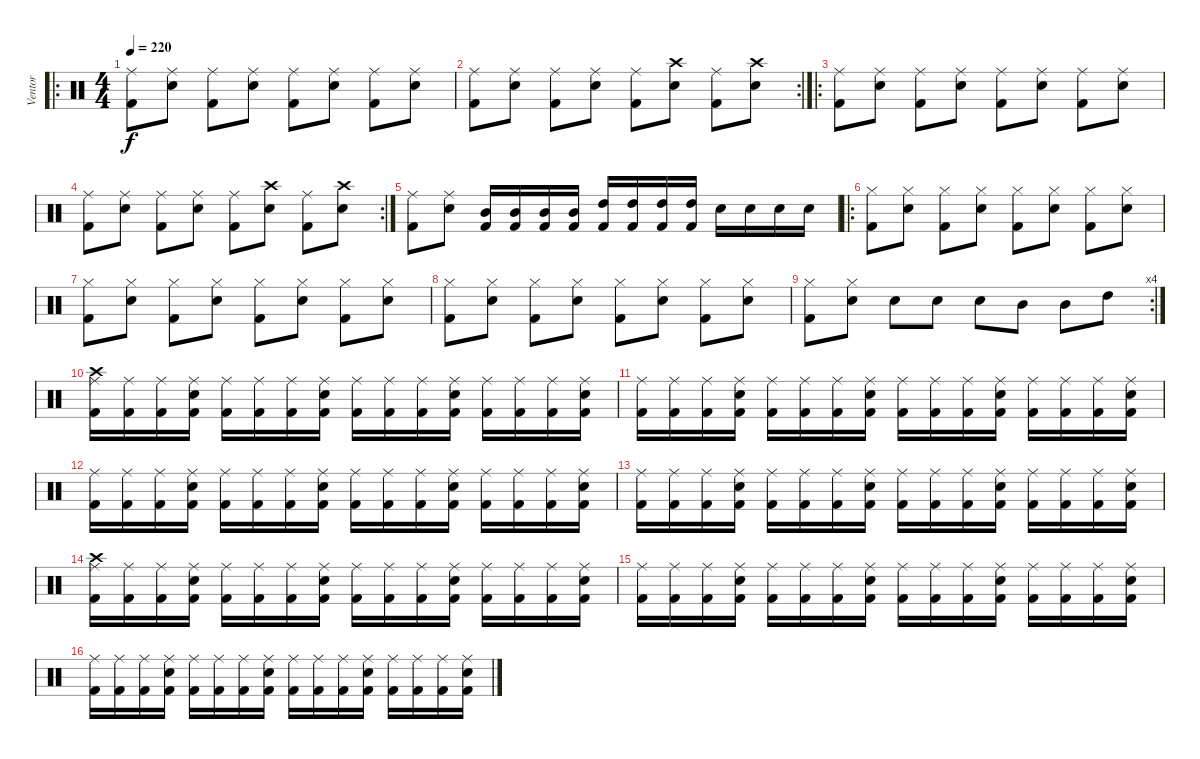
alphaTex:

\track ("Ventor" "Ventor") {instrument percussion}
\staff {score}
\articulation defaults
\ro
\ts (4 4)
\tempo 220
\clef neutral
\ks c
("Kick (hit) 2" "Ride (middle)").8{dy f} ("Snare (hit) 2" "Ride (middle)").8 ("Kick (hit) 2" "Ride (middle)").8 ("Snare (hit) 2" "Ride (middle)").8 ("Kick (hit) 2" "Ride (middle)").8 ("Snare (hit) 2" "Ride (middle)").8 ("Kick (hit) 2" "Ride (middle)").8 ("Snare (hit) 2" "Ride (middle)").8 |
\rc 2
("Kick (hit) 2" "Ride (middle)").8 ("Snare (hit) 2" "Ride (middle)").8 ("Kick (hit) 2" "Ride (middle)").8 ("Snare (hit) 2" "Ride (middle)").8 ("Kick (hit) 2" "Ride (middle)").8 ("Snare (hit) 2" "Crash high (hit)").8 ("Kick (hit) 2" "Ride (middle)").8 ("Snare (hit) 2" "Crash high (hit)").8 |
\ro
("Kick (hit) 2" "Ride (middle)").8 ("Snare (hit) 2" "Ride (middle)").8 ("Kick (hit) 2" "Ride (middle)").8 ("Snare (hit) 2" "Ride (middle)").8 ("Kick (hit) 2" "Ride (middle)").8 ("Snare (hit) 2" "Ride (middle)").8 ("Kick (hit) 2" "Ride (middle)").8 ("Snare (hit) 2" "Ride (middle)").8 |
\rc 2
("Kick (hit) 2" "Ride (middle)").8 ("Snare (hit) 2" "Ride (middle)").8 ("Kick (hit) 2" "Ride (middle)").8 ("Snare (hit) 2" "Ride (middle)").8 ("Kick (hit) 2" "Ride (middle)").8 ("Snare (hit) 2" "Crash high (hit)").8 ("Kick (hit) 2" "Ride (middle)").8 ("Snare (hit) 2" "Crash high (hit)").8 |
("Kick (hit) 2" "Ride (middle)").8 ("Snare (hit) 2" "Ride (middle)").8 ("Mid Tom (hit)" "Kick (hit) 2").16 ("Mid Tom (hit)" "Kick (hit) 2").16 ("Mid Tom (hit)" "Kick (hit) 2").16 ("Mid Tom (hit)" "Kick (hit) 2").16 ("High Tom (hit)" "Kick (hit) 2").16 ("High Tom (hit)" "Kick (hit) 2").16 ("High Tom (hit)" "Kick (hit) 2").16 ("High Tom (hit)" "Kick (hit) 2").16 "Snare (hit) 2".16 "Snare (hit) 2".16 "Snare (hit) 2".16 "Snare (hit) 2".16 |
\ro
("Hi-Hat (closed)" "Kick (hit) 2").8 ("Hi-Hat (closed)" "Snare (hit) 2").8 ("Hi-Hat (closed)" "Kick (hit) 2").8 ("Hi-Hat (closed)" "Snare (hit) 2").8 ("Hi-Hat (closed)" "Kick (hit) 2").8 ("Hi-Hat (closed)" "Snare (hit) 2").8 ("Hi-Hat (closed)" "Kick (hit) 2").8 ("Hi-Hat (closed)" "Snare (hit) 2").8 |
("Hi-Hat (closed)" "Kick (hit) 2").8 ("Hi-Hat (closed)" "Snare (hit) 2").8 ("Hi-Hat (closed)" "Kick (hit) 2").8 ("Hi-Hat (closed)" "Snare (hit) 2").8 ("Hi-Hat (closed)" "Kick (hit) 2").8 ("Hi-Hat (closed)" "Snare (hit) 2").8 ("Hi-Hat (closed)" "Kick (hit) 2").8 ("Hi-Hat (closed)" "Snare (hit) 2").8 |
("Hi-Hat (closed)" "Kick (hit) 2").8 ("Hi-Hat (closed)" "Snare (hit) 2").8 ("Hi-Hat (closed)" "Kick (hit) 2").8 ("Hi-Hat (closed)" "Snare (hit) 2").8 ("Hi-Hat (closed)" "Kick (hit) 2").8 ("Hi-Hat (closed)" "Snare (hit) 2").8 ("Hi-Hat (closed)" "Kick (hit) 2").8 ("Hi-Hat (closed)" "Snare (hit) 2").8 |
\rc 4
("Hi-Hat (closed)" "Kick (hit) 2").8 ("Hi-Hat (closed)" "Snare (hit) 2").8 "Snare (hit) 2".8 "Snare (hit) 2".8 "Snare (hit) 2".8 "Mid Tom (hit)".8 "Mid Tom (hit)".8 "High Tom (hit)".8 |
("Crash high (hit)" "Kick (hit) 2" "Ride (middle)").16 ("Kick (hit) 2" "Ride (middle)").16 ("Kick (hit) 2" "Ride (middle)").16 ("Snare (hit) 2" "Kick (hit) 2" "Ride (middle)").16 ("Kick (hit) 2" "Ride (middle)").16 ("Kick (hit) 2" "Ride (middle)").16 ("Kick (hit) 2" "Ride (middle)").16 ("Snare (hit) 2" "Kick (hit) 2" "Ride (middle)").16 ("Kick (hit) 2" "Ride (middle)").16 ("Kick (hit) 2" "Ride (middle)").16 ("Kick (hit) 2" "Ride (middle)").16 ("Snare (hit) 2" "Kick (hit) 2" "Ride (middle)").16 ("Kick (hit) 2" "Ride (middle)").16 ("Kick (hit) 2" "Ride (middle)").16 ("Kick (hit) 2" "Ride (middle)").16 ("Snare (hit) 2" "Kick (hit) 2" "Ride (middle)").16 |
("Kick (hit) 2" "Ride (middle)").16 ("Kick (hit) 2" "Ride (middle)").16 ("Kick (hit) 2" "Ride (middle)").16 ("Snare (hit) 2" "Kick (hit) 2" "Ride (middle)").16 ("Kick (hit) 2" "Ride (middle)").16 ("Kick (hit) 2" "Ride (middle)").16 ("Kick (hit) 2" "Ride (middle)").16 ("Snare (hit) 2" "Kick (hit) 2" "Ride (middle)").16 ("Kick (hit) 2" "Ride (middle)").16 ("Kick (hit) 2" "Ride (middle)").16 ("Kick (hit) 2" "Ride (middle)").16 ("Snare (hit) 2" "Kick (hit) 2" "Ride (middle)").16 ("Kick (hit) 2" "Ride (middle)").16 ("Kick (hit) 2" "Ride (middle)").16 ("Kick (hit) 2" "Ride (middle)").16 ("Snare (hit) 2" "Kick (hit) 2" "Ride (middle)").16 |
("Kick (hit) 2" "Ride (middle)").16 ("Kick (hit) 2" "Ride (middle)").16 ("Kick (hit) 2" "Ride (middle)").16 ("Snare (hit) 2" "Kick (hit) 2" "Ride (middle)").16 ("Kick (hit) 2" "Ride (middle)").16 ("Kick (hit) 2" "Ride (middle)").16 ("Kick (hit) 2" "Ride (middle)").16 ("Snare (hit) 2" "Kick (hit) 2" "Ride (middle)").16 ("Kick (hit) 2" "Ride (middle)").16 ("Kick (hit) 2" "Ride (middle)").16 ("Kick (hit) 2" "Ride (middle)").16 ("Snare (hit) 2" "Kick (hit) 2" "Ride (middle)").16 ("Kick (hit) 2" "Ride (middle)").16 ("Kick (hit) 2" "Ride (middle)").16 ("Kick (hit) 2" "Ride (middle)").16 ("Snare (hit) 2" "Kick (hit) 2" "Ride (middle)").16 |
("Kick (hit) 2" "Ride (middle)").16 ("Kick (hit) 2" "Ride (middle)").16 ("Kick (hit) 2" "Ride (middle)").16 ("Snare (hit) 2" "Kick (hit) 2" "Ride (middle)").16 ("Kick (hit) 2" "Ride (middle)").16 ("Kick (hit) 2" "Ride (middle)").16 ("Kick (hit) 2" "Ride (middle)").16 ("Snare (hit) 2" "Kick (hit) 2" "Ride (middle)").16 ("Kick (hit) 2" "Ride (middle)").16 ("Kick (hit) 2" "Ride (middle)").16 ("Kick (hit) 2" "Ride (middle)").16 ("Snare (hit) 2" "Kick (hit) 2" "Ride (middle)").16 ("Kick (hit) 2" "Ride (middle)").16 ("Kick (hit) 2" "Ride (middle)").16 ("Kick (hit) 2" "Ride (middle)").16 ("Snare (hit) 2" "Kick (hit) 2" "Ride (middle)").16 |
("Crash high (hit)" "Kick (hit) 2" "Ride (middle)").16 ("Kick (hit) 2" "Ride (middle)").16 ("Kick (hit) 2" "Ride (middle)").16 ("Snare (hit) 2" "Kick (hit) 2" "Ride (middle)").16 ("Kick (hit) 2" "Ride (middle)").16 ("Kick (hit) 2" "Ride (middle)").16 ("Kick (hit) 2" "Ride (middle)").16 ("Snare (hit) 2" "Kick (hit) 2" "Ride (middle)").16 ("Kick (hit) 2" "Ride (middle)").16 ("Kick (hit) 2" "Ride (middle)").16 ("Kick (hit) 2" "Ride (middle)").16 ("Snare (hit) 2" "Kick (hit) 2" "Ride (middle)").16 ("Kick (hit) 2" "Ride (middle)").16 ("Kick (hit) 2" "Ride (middle)").16 ("Kick (hit) 2" "Ride (middle)").16 ("Snare (hit) 2" "Kick (hit) 2" "Ride (middle)").16 |
("Kick (hit) 2" "Ride (middle)").16 ("Kick (hit) 2" "Ride (middle)").16 ("Kick (hit) 2" "Ride (middle)").16 ("Snare (hit) 2" "Kick (hit) 2" "Ride (middle)").16 ("Kick (hit) 2" "Ride (middle)").16 ("Kick (hit) 2" "Ride (middle)").16 ("Kick (hit) 2" "Ride (middle)").16 ("Snare (hit) 2" "Kick (hit) 2" "Ride (middle)").16 ("Kick (hit) 2" "Ride (middle)").16 ("Kick (hit) 2" "Ride (middle)").16 ("Kick (hit) 2" "Ride (middle)").16 ("Snare (hit) 2" "Kick (hit) 2" "Ride (middle)").16 ("Kick (hit) 2" "Ride (middle)").16 ("Kick (hit) 2" "Ride (middle)").16 ("Kick (hit) 2" "Ride (middle)").16 ("Snare (hit) 2" "Kick (hit) 2" "Ride (middle)").16 |
("Kick (hit) 2" "Ride (middle)").16 ("Kick (hit) 2" "Ride (middle)").16 ("Kick (hit) 2" "Ride (middle)").16 ("Snare (hit) 2" "Kick (hit) 2" "Ride (middle)").16 ("Kick (hit) 2" "Ride (middle)").16 ("Kick (hit) 2" "Ride (middle)").16 ("Kick (hit) 2" "Ride (middle)").16 ("Snare (hit) 2" "Kick (hit) 2" "Ride (middle)").16 ("Kick (hit) 2" "Ride (middle)").16 ("Kick (hit) 2" "Ride (middle)").16 ("Kick (hit) 2" "Ride (middle)").16 ("Snare (hit) 2" "Kick (hit) 2" "Ride (middle)").16 ("Kick (hit) 2" "Ride (middle)").16 ("Kick (hit) 2" "Ride (middle)").16 ("Kick (hit) 2" "Ride (middle)").16 ("Snare (hit) 2" "Kick (hit) 2" "Ride (middle)").16
